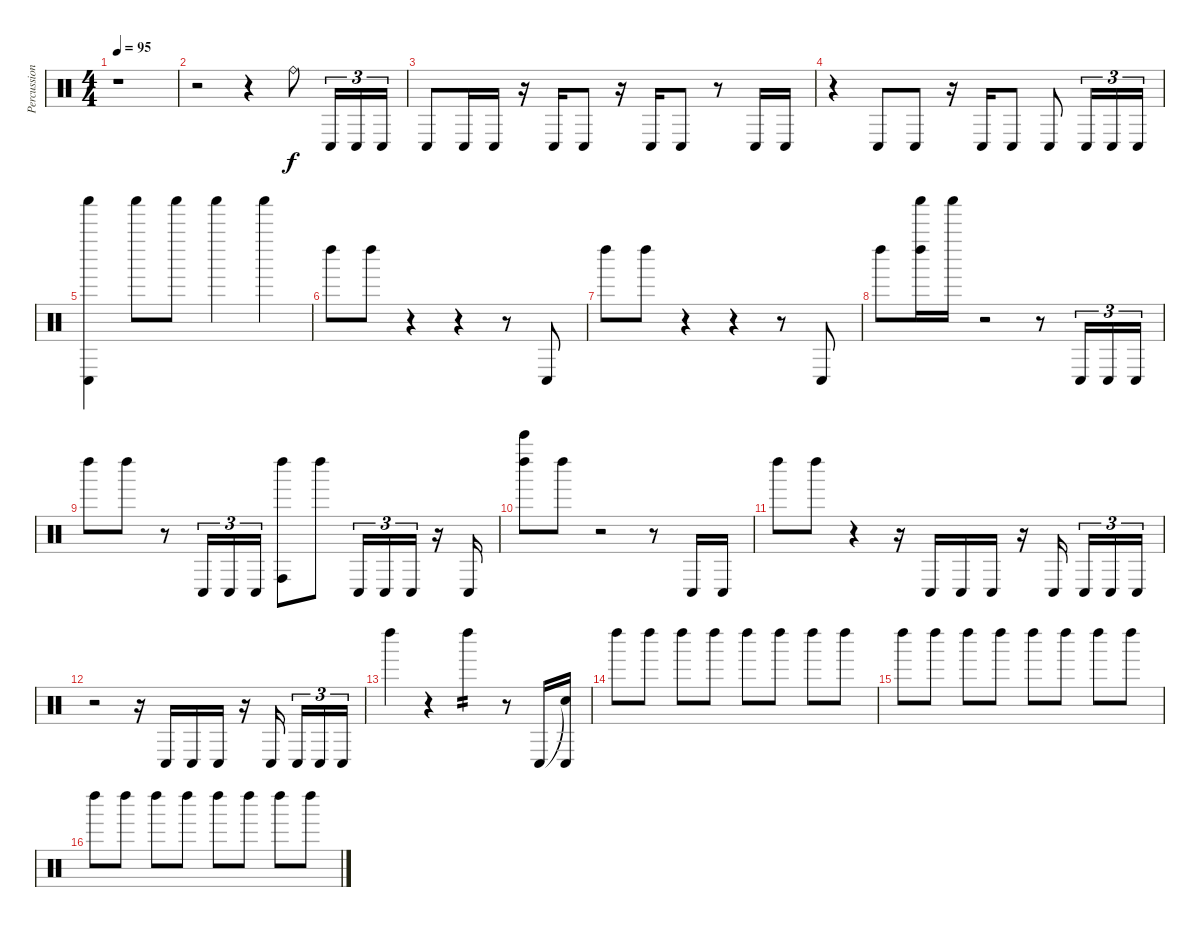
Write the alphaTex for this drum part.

\track ("Percussion" "Percussion") {instrument percussion}
\staff {score}
\articulation defaults
\ts (4 4)
\tempo 95
\clef neutral
\ks c
r.1{dy f} |
r.2 r.4 "Ride (bell)".8 "Conga low (hit)".16{tu (3 2)} "Conga low (hit)".16{tu (3 2)} "Conga low (hit)".16{tu (3 2)} |
"Conga low (hit)".8 "Conga low (hit)".16 "Conga low (hit)".16 r.16 "Conga low (hit)".16 "Conga low (hit)".8 r.16 "Conga low (hit)".16 "Conga low (hit)".8 r.8 "Conga low (hit)".16 "Conga low (hit)".16 |
r.4 "Conga low (hit)".8 "Conga low (hit)".8 r.16 "Conga low (hit)".16 "Conga low (hit)".8 "Conga low (hit)".8 "Conga low (hit)".16{tu (3 2)} "Conga low (hit)".16{tu (3 2)} "Conga low (hit)".16{tu (3 2)} |
("Shaker (hit)" "Conga low (hit)").4 "Shaker (hit)".8 "Shaker (hit)".8 "Shaker (hit)".4 "Shaker (hit)".4 |
"Left Maraca (hit)".8 "Left Maraca (hit)".8 r.4 r.4 r.8 "Conga low (hit)".8 |
"Left Maraca (hit)".8 "Left Maraca (hit)".8 r.4 r.4 r.8 "Conga low (hit)".8 |
"Left Maraca (hit)".8 ("Shaker (hit)" "Left Maraca (hit)").16 "Shaker (hit)".16 r.2 r.8 "Conga low (hit)".16{tu (3 2)} "Conga low (hit)".16{tu (3 2)} "Conga low (hit)".16{tu (3 2)} |
"Left Maraca (hit)".8 "Left Maraca (hit)".8 r.8 "Conga low (hit)".16{tu (3 2)} "Conga low (hit)".16{tu (3 2)} "Conga low (hit)".16{tu (3 2)} ("Left Maraca (hit)" "Conga high (hit)").8 "Left Maraca (hit)".8 "Conga low (hit)".16{tu (3 2)} "Conga low (hit)".16{tu (3 2)} "Conga low (hit)".16{tu (3 2)} r.16 "Conga low (hit)".16 |
("Bell Tree (hit)" "Left Maraca (hit)").8 "Left Maraca (hit)".8 r.2 r.8 "Conga low (hit)".16 "Conga low (hit)".16 |
"Left Maraca (hit)".8 "Left Maraca (hit)".8 r.4 r.16 "Conga low (hit)".16 "Conga low (hit)".16 "Conga low (hit)".16 r.16 "Conga low (hit)".16{beam splitsecondary} "Conga low (hit)".16{tu (3 2)} "Conga low (hit)".16{tu (3 2)} "Conga low (hit)".16{tu (3 2)} |
r.2 r.16 "Conga low (hit)".16 "Conga low (hit)".16 "Conga low (hit)".16 r.16 "Conga low (hit)".16{beam splitsecondary} "Conga low (hit)".16{tu (3 2)} "Conga low (hit)".16{tu (3 2)} "Conga low (hit)".16{tu (3 2)} |
"Left Maraca (hit)".4 r.4 "Left Maraca (hit)".4{tp 2} r.8 "Conga low (hit)".16 ("Snare (hit)"{t} "Conga low (hit)").16 |
"Left Maraca (hit)".8 "Left Maraca (hit)".8 "Left Maraca (hit)".8 "Left Maraca (hit)".8 "Left Maraca (hit)".8 "Left Maraca (hit)".8 "Left Maraca (hit)".8 "Left Maraca (hit)".8 |
"Left Maraca (hit)".8 "Left Maraca (hit)".8 "Left Maraca (hit)".8 "Left Maraca (hit)".8 "Left Maraca (hit)".8 "Left Maraca (hit)".8 "Left Maraca (hit)".8 "Left Maraca (hit)".8 |
"Left Maraca (hit)".8 "Left Maraca (hit)".8 "Left Maraca (hit)".8 "Left Maraca (hit)".8 "Left Maraca (hit)".8 "Left Maraca (hit)".8 "Left Maraca (hit)".8 "Left Maraca (hit)".8
